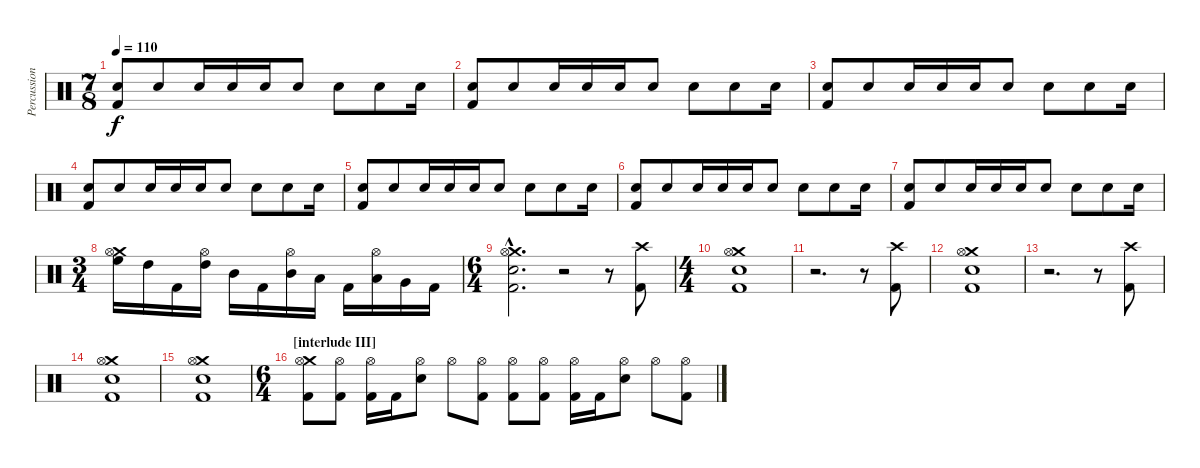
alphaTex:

\track ("Percussion" "Percussion") {instrument percussion}
\staff {score}
\articulation defaults
\ts (7 8)
\tempo 110
\clef neutral
\ks c
("Electric Snare (hit)" "Kick (hit) 2").8{dy f} "Electric Snare (hit)".8 "Electric Snare (hit)".16 "Electric Snare (hit)".16 "Electric Snare (hit)".16 "Electric Snare (hit)".8 "Electric Snare (hit)".8 "Electric Snare (hit)".8 "Electric Snare (hit)".16 |
("Electric Snare (hit)" "Kick (hit) 2").8 "Electric Snare (hit)".8 "Electric Snare (hit)".16 "Electric Snare (hit)".16 "Electric Snare (hit)".16 "Electric Snare (hit)".8 "Electric Snare (hit)".8 "Electric Snare (hit)".8 "Electric Snare (hit)".16 |
("Electric Snare (hit)" "Kick (hit) 2").8 "Electric Snare (hit)".8 "Electric Snare (hit)".16 "Electric Snare (hit)".16 "Electric Snare (hit)".16 "Electric Snare (hit)".8 "Electric Snare (hit)".8 "Electric Snare (hit)".8 "Electric Snare (hit)".16 |
("Electric Snare (hit)" "Kick (hit) 2").8 "Electric Snare (hit)".8 "Electric Snare (hit)".16 "Electric Snare (hit)".16 "Electric Snare (hit)".16 "Electric Snare (hit)".8 "Electric Snare (hit)".8 "Electric Snare (hit)".8 "Electric Snare (hit)".16 |
("Electric Snare (hit)" "Kick (hit) 2").8 "Electric Snare (hit)".8 "Electric Snare (hit)".16 "Electric Snare (hit)".16 "Electric Snare (hit)".16 "Electric Snare (hit)".8 "Electric Snare (hit)".8 "Electric Snare (hit)".8 "Electric Snare (hit)".16 |
("Electric Snare (hit)" "Kick (hit) 2").8 "Electric Snare (hit)".8 "Electric Snare (hit)".16 "Electric Snare (hit)".16 "Electric Snare (hit)".16 "Electric Snare (hit)".8 "Electric Snare (hit)".8 "Electric Snare (hit)".8 "Electric Snare (hit)".16 |
("Electric Snare (hit)" "Kick (hit) 2").8 "Electric Snare (hit)".8 "Electric Snare (hit)".16 "Electric Snare (hit)".16 "Electric Snare (hit)".16 "Electric Snare (hit)".8 "Electric Snare (hit)".8 "Electric Snare (hit)".8 "Electric Snare (hit)".16 |
\ts (3 4)
("Crash medium (hit)" "Hi-Hat (open)" "High Floor Tom (hit)").16 "High Tom (hit)".16 "Kick (hit) 2".16 ("Hi-Hat (open)" "High Tom (hit)").16 "Mid Tom (hit)".16 "Kick (hit) 2".16 ("Hi-Hat (open)" "Mid Tom (hit)").16 "Low Tom (hit)".16 "Kick (hit) 2".16 ("Hi-Hat (open)" "Low Tom (hit)").16 "Very Low Tom (hit)".16 "Kick (hit) 2".16 |
\ts (6 4)
("Crash medium (hit)"{hac} "Hi-Hat (open)"{hac} "Electric Snare (hit)"{hac} "Kick (hit) 2"{hac}).2{d} r.2 r.8 ("Crash high (hit)" "Kick (hit) 2").8 |
\ts (4 4)
("Crash medium (hit)" "Hi-Hat (open)" "Electric Snare (hit)" "Kick (hit) 2").1 |
r.2{d} r.8 ("Crash high (hit)" "Kick (hit) 2").8 |
("Crash medium (hit)" "Hi-Hat (open)" "Electric Snare (hit)" "Kick (hit) 2").1 |
r.2{d} r.8 ("Crash high (hit)" "Kick (hit) 2").8 |
("Crash medium (hit)" "Hi-Hat (open)" "Electric Snare (hit)" "Kick (hit) 2").1 |
("Crash medium (hit)" "Hi-Hat (open)" "Electric Snare (hit)" "Kick (hit) 2").1 |
\ts (6 4)
\section ("" "[interlude III]")
("Crash medium (hit)" "Hi-Hat (open)" "Kick (hit) 2").8 ("Hi-Hat (open)" "Kick (hit) 2").8 ("Hi-Hat (open)" "Kick (hit) 2").16 "Kick (hit) 2".16 ("Hi-Hat (open)" "Electric Snare (hit)").8 "Hi-Hat (open)".8 ("Hi-Hat (open)" "Kick (hit) 2").8 ("Hi-Hat (open)" "Kick (hit) 2").8 ("Hi-Hat (open)" "Kick (hit) 2").8 ("Hi-Hat (open)" "Kick (hit) 2").16 "Kick (hit) 2".16 ("Hi-Hat (open)" "Electric Snare (hit)").8 "Hi-Hat (open)".8 ("Hi-Hat (open)" "Kick (hit) 2").8
